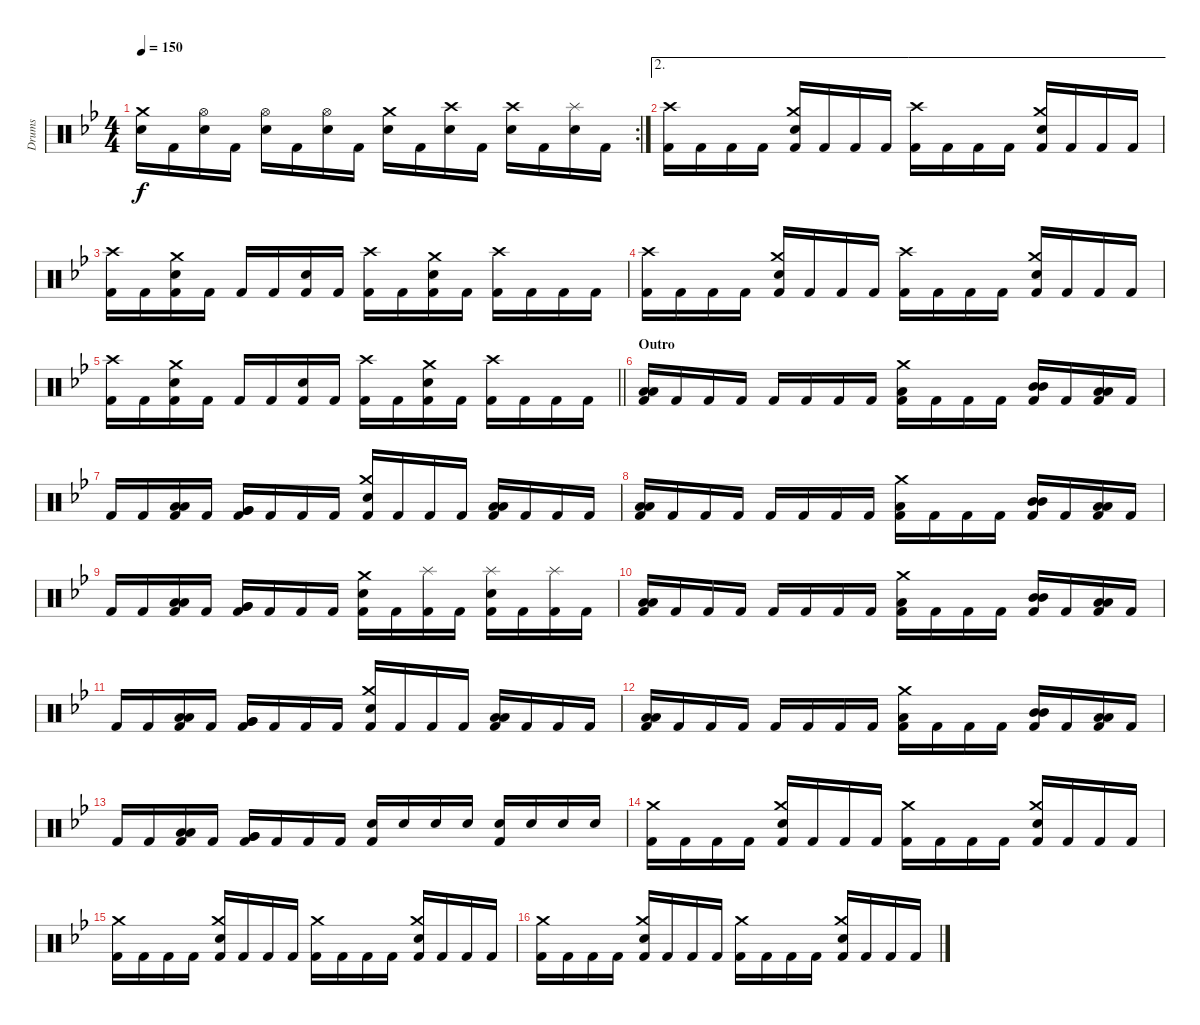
\track ("Drums" "Drums") {instrument percussion}
\staff {score}
\articulation defaults
\rc 2
\ts (4 4)
\tempo 150
\clef neutral
\ks gminor
("Snare (hit) 2" "Crash medium (hit)").16{dy f} "Kick (hit) 2".16 ("Snare (hit) 2" "Hi-Hat (open)").16 "Kick (hit) 2".16 ("Snare (hit) 2" "Hi-Hat (open)").16 "Kick (hit) 2".16 ("Snare (hit) 2" "Hi-Hat (open)").16 "Kick (hit) 2".16 ("Snare (hit) 2" "Crash medium (hit)").16 "Kick (hit) 2".16 ("Snare (hit) 2" "Crash high (hit)").16 "Kick (hit) 2".16 ("Snare (hit) 2" "Crash high (hit)").16 "Kick (hit) 2".16 ("Snare (hit) 2" "Splash (hit)").16 "Kick (hit) 2".16 |
\ae 2
("Kick (hit) 2" "Crash high (hit)").16 "Kick (hit) 2".16 "Kick (hit) 2".16 "Kick (hit) 2".16 ("Kick (hit) 2" "Snare (hit) 2" "Crash medium (hit)").16 "Kick (hit) 2".16 "Kick (hit) 2".16 "Kick (hit) 2".16 ("Kick (hit) 2" "Crash high (hit)").16 "Kick (hit) 2".16 "Kick (hit) 2".16 "Kick (hit) 2".16 ("Kick (hit) 2" "Snare (hit) 2" "Crash medium (hit)").16 "Kick (hit) 2".16 "Kick (hit) 2".16 "Kick (hit) 2".16 |
("Kick (hit) 2" "Crash high (hit)").16 "Kick (hit) 2".16 ("Kick (hit) 2" "Snare (hit) 2" "Crash medium (hit)").16 "Kick (hit) 2".16 "Kick (hit) 2".16 "Kick (hit) 2".16 ("Kick (hit) 2" "Snare (hit) 2").16 "Kick (hit) 2".16 ("Kick (hit) 2" "Crash high (hit)").16 "Kick (hit) 2".16 ("Kick (hit) 2" "Snare (hit) 2" "Crash medium (hit)").16 "Kick (hit) 2".16 ("Kick (hit) 2" "Crash high (hit)").16 "Kick (hit) 2".16 "Kick (hit) 2".16 "Kick (hit) 2".16 |
("Kick (hit) 2" "Crash high (hit)").16 "Kick (hit) 2".16 "Kick (hit) 2".16 "Kick (hit) 2".16 ("Kick (hit) 2" "Snare (hit) 2" "Crash medium (hit)").16 "Kick (hit) 2".16 "Kick (hit) 2".16 "Kick (hit) 2".16 ("Kick (hit) 2" "Crash high (hit)").16 "Kick (hit) 2".16 "Kick (hit) 2".16 "Kick (hit) 2".16 ("Kick (hit) 2" "Snare (hit) 2" "Crash medium (hit)").16 "Kick (hit) 2".16 "Kick (hit) 2".16 "Kick (hit) 2".16 |
\barLineRight lightlight
("Kick (hit) 2" "Crash high (hit)").16 "Kick (hit) 2".16 ("Kick (hit) 2" "Snare (hit) 2" "Crash medium (hit)").16 "Kick (hit) 2".16 "Kick (hit) 2".16 "Kick (hit) 2".16 ("Kick (hit) 2" "Snare (hit) 2").16 "Kick (hit) 2".16 ("Kick (hit) 2" "Crash high (hit)").16 "Kick (hit) 2".16 ("Kick (hit) 2" "Snare (hit) 2" "Crash medium (hit)").16 "Kick (hit) 2".16 ("Kick (hit) 2" "Crash high (hit)").16 "Kick (hit) 2".16 "Kick (hit) 2".16 "Kick (hit) 2".16 |
\section ("" "Outro")
("Kick (hit) 2" "Low Floor Tom (hit)" "Low Floor Tom (hit)").16 "Kick (hit) 2".16 "Kick (hit) 2".16 "Kick (hit) 2".16 "Kick (hit) 2".16 "Kick (hit) 2".16 "Kick (hit) 2".16 "Kick (hit) 2".16 ("Kick (hit) 2" "Low Floor Tom (hit)" "Crash medium (hit)").16 "Kick (hit) 2".16 "Kick (hit) 2".16 "Kick (hit) 2".16 ("Kick (hit) 2" "Mid Tom (hit)" "Mid Tom (hit)").16 "Kick (hit) 2".16 ("Kick (hit) 2" "Low Tom (hit)" "Low Tom (hit)").16 "Kick (hit) 2".16 |
"Kick (hit) 2".16 "Kick (hit) 2".16 ("Kick (hit) 2" "Low Tom (hit)" "Low Tom (hit)").16 "Kick (hit) 2".16 ("Kick (hit) 2" "Very Low Tom (hit)" "Very Low Tom (hit)").16 "Kick (hit) 2".16 "Kick (hit) 2".16 "Kick (hit) 2".16 ("Kick (hit) 2" "Snare (hit) 2" "Crash medium (hit)").16 "Kick (hit) 2".16 "Kick (hit) 2".16 "Kick (hit) 2".16 ("Kick (hit) 2" "Low Floor Tom (hit)" "Low Floor Tom (hit)").16 "Kick (hit) 2".16 "Kick (hit) 2".16 "Kick (hit) 2".16 |
("Kick (hit) 2" "Low Floor Tom (hit)" "Low Floor Tom (hit)").16 "Kick (hit) 2".16 "Kick (hit) 2".16 "Kick (hit) 2".16 "Kick (hit) 2".16 "Kick (hit) 2".16 "Kick (hit) 2".16 "Kick (hit) 2".16 ("Kick (hit) 2" "Low Floor Tom (hit)" "Crash medium (hit)").16 "Kick (hit) 2".16 "Kick (hit) 2".16 "Kick (hit) 2".16 ("Kick (hit) 2" "Mid Tom (hit)" "Mid Tom (hit)").16 "Kick (hit) 2".16 ("Kick (hit) 2" "Low Tom (hit)" "Low Tom (hit)").16 "Kick (hit) 2".16 |
"Kick (hit) 2".16 "Kick (hit) 2".16 ("Kick (hit) 2" "Low Tom (hit)" "Low Tom (hit)").16 "Kick (hit) 2".16 ("Kick (hit) 2" "Very Low Tom (hit)" "Very Low Tom (hit)").16 "Kick (hit) 2".16 "Kick (hit) 2".16 "Kick (hit) 2".16 ("Kick (hit) 2" "Snare (hit) 2" "Crash medium (hit)").16 "Kick (hit) 2".16 ("Kick (hit) 2" "Splash (hit)").16 "Kick (hit) 2".16 ("Kick (hit) 2" "Snare (hit) 2" "Splash (hit)").16 "Kick (hit) 2".16 ("Kick (hit) 2" "Splash (hit)").16 "Kick (hit) 2".16 |
("Kick (hit) 2" "Low Floor Tom (hit)" "Low Floor Tom (hit)").16 "Kick (hit) 2".16 "Kick (hit) 2".16 "Kick (hit) 2".16 "Kick (hit) 2".16 "Kick (hit) 2".16 "Kick (hit) 2".16 "Kick (hit) 2".16 ("Kick (hit) 2" "Low Floor Tom (hit)" "Crash medium (hit)").16 "Kick (hit) 2".16 "Kick (hit) 2".16 "Kick (hit) 2".16 ("Kick (hit) 2" "Mid Tom (hit)" "Mid Tom (hit)").16 "Kick (hit) 2".16 ("Kick (hit) 2" "Low Tom (hit)" "Low Tom (hit)").16 "Kick (hit) 2".16 |
"Kick (hit) 2".16 "Kick (hit) 2".16 ("Kick (hit) 2" "Low Tom (hit)" "Low Tom (hit)").16 "Kick (hit) 2".16 ("Kick (hit) 2" "Very Low Tom (hit)" "Very Low Tom (hit)").16 "Kick (hit) 2".16 "Kick (hit) 2".16 "Kick (hit) 2".16 ("Kick (hit) 2" "Snare (hit) 2" "Crash medium (hit)").16 "Kick (hit) 2".16 "Kick (hit) 2".16 "Kick (hit) 2".16 ("Kick (hit) 2" "Low Floor Tom (hit)" "Low Floor Tom (hit)").16 "Kick (hit) 2".16 "Kick (hit) 2".16 "Kick (hit) 2".16 |
("Kick (hit) 2" "Low Floor Tom (hit)" "Low Floor Tom (hit)").16 "Kick (hit) 2".16 "Kick (hit) 2".16 "Kick (hit) 2".16 "Kick (hit) 2".16 "Kick (hit) 2".16 "Kick (hit) 2".16 "Kick (hit) 2".16 ("Kick (hit) 2" "Low Floor Tom (hit)" "Crash medium (hit)").16 "Kick (hit) 2".16 "Kick (hit) 2".16 "Kick (hit) 2".16 ("Kick (hit) 2" "Mid Tom (hit)" "Mid Tom (hit)").16 "Kick (hit) 2".16 ("Kick (hit) 2" "Low Tom (hit)" "Low Tom (hit)").16 "Kick (hit) 2".16 |
"Kick (hit) 2".16 "Kick (hit) 2".16 ("Kick (hit) 2" "Low Tom (hit)" "Low Tom (hit)").16 "Kick (hit) 2".16 ("Kick (hit) 2" "Very Low Tom (hit)" "Very Low Tom (hit)").16 "Kick (hit) 2".16 "Kick (hit) 2".16 "Kick (hit) 2".16 ("Kick (hit) 2" "Snare (hit) 2").16 "Snare (hit) 2".16 "Snare (hit) 2".16 "Snare (hit) 2".16 ("Kick (hit) 2" "Snare (hit) 2").16 "Snare (hit) 2".16 "Snare (hit) 2".16 "Snare (hit) 2".16 |
("Kick (hit) 2" "Crash medium (hit)").16 "Kick (hit) 2".16 "Kick (hit) 2".16 "Kick (hit) 2".16 ("Kick (hit) 2" "Snare (hit) 2" "Crash medium (hit)").16 "Kick (hit) 2".16 "Kick (hit) 2".16 "Kick (hit) 2".16 ("Kick (hit) 2" "Crash medium (hit)").16 "Kick (hit) 2".16 "Kick (hit) 2".16 "Kick (hit) 2".16 ("Kick (hit) 2" "Snare (hit) 2" "Crash medium (hit)").16 "Kick (hit) 2".16 "Kick (hit) 2".16 "Kick (hit) 2".16 |
("Kick (hit) 2" "Crash medium (hit)").16 "Kick (hit) 2".16 "Kick (hit) 2".16 "Kick (hit) 2".16 ("Kick (hit) 2" "Snare (hit) 2" "Crash medium (hit)").16 "Kick (hit) 2".16 "Kick (hit) 2".16 "Kick (hit) 2".16 ("Kick (hit) 2" "Crash medium (hit)").16 "Kick (hit) 2".16 "Kick (hit) 2".16 "Kick (hit) 2".16 ("Kick (hit) 2" "Snare (hit) 2" "Crash medium (hit)").16 "Kick (hit) 2".16 "Kick (hit) 2".16 "Kick (hit) 2".16 |
("Kick (hit) 2" "Crash medium (hit)").16 "Kick (hit) 2".16 "Kick (hit) 2".16 "Kick (hit) 2".16 ("Kick (hit) 2" "Snare (hit) 2" "Crash medium (hit)").16 "Kick (hit) 2".16 "Kick (hit) 2".16 "Kick (hit) 2".16 ("Kick (hit) 2" "Crash medium (hit)").16 "Kick (hit) 2".16 "Kick (hit) 2".16 "Kick (hit) 2".16 ("Kick (hit) 2" "Snare (hit) 2" "Crash medium (hit)").16 "Kick (hit) 2".16 "Kick (hit) 2".16 "Kick (hit) 2".16
